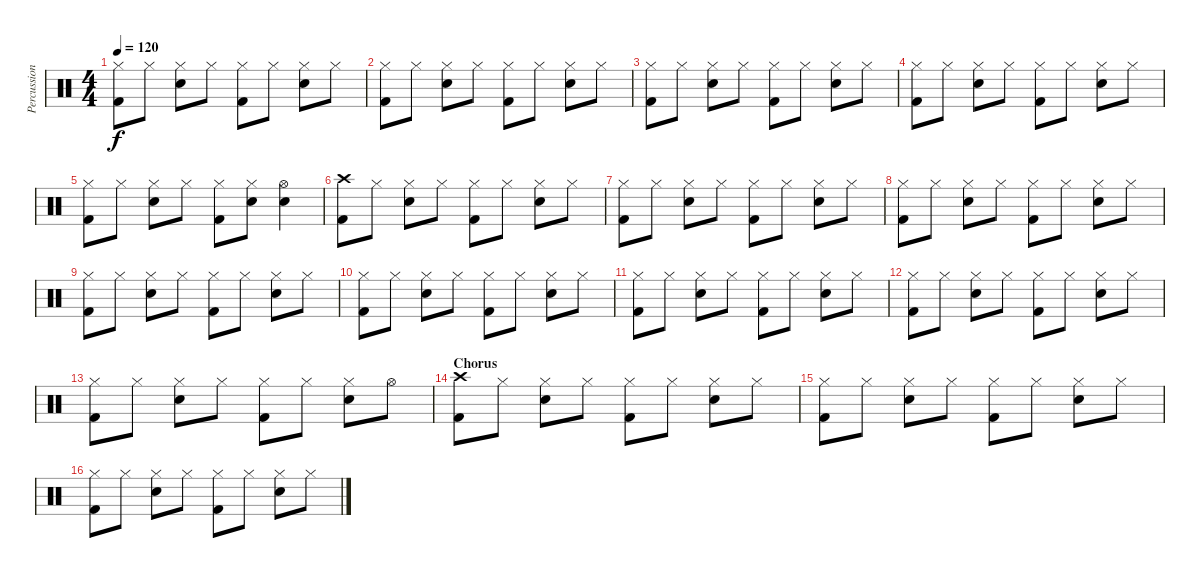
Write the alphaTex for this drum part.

\track ("Percussion" "Percussion") {instrument percussion}
\staff {score}
\articulation defaults
\ts (4 4)
\tempo 120
\clef neutral
\ks c
("Hi-Hat (closed)" "Kick (hit) 2").8{dy f} "Hi-Hat (closed)".8 ("Hi-Hat (closed)" "Electric Snare (hit)").8 "Hi-Hat (closed)".8 ("Hi-Hat (closed)" "Kick (hit) 2").8 "Hi-Hat (closed)".8 ("Hi-Hat (closed)" "Electric Snare (hit)").8 "Hi-Hat (closed)".8 |
("Hi-Hat (closed)" "Kick (hit) 2").8 "Hi-Hat (closed)".8 ("Hi-Hat (closed)" "Electric Snare (hit)").8 "Hi-Hat (closed)".8 ("Hi-Hat (closed)" "Kick (hit) 2").8 "Hi-Hat (closed)".8 ("Hi-Hat (closed)" "Electric Snare (hit)").8 "Hi-Hat (closed)".8 |
("Hi-Hat (closed)" "Kick (hit) 2").8 "Hi-Hat (closed)".8 ("Hi-Hat (closed)" "Electric Snare (hit)").8 "Hi-Hat (closed)".8 ("Hi-Hat (closed)" "Kick (hit) 2").8 "Hi-Hat (closed)".8 ("Hi-Hat (closed)" "Electric Snare (hit)").8 "Hi-Hat (closed)".8 |
("Hi-Hat (closed)" "Kick (hit) 2").8 "Hi-Hat (closed)".8 ("Hi-Hat (closed)" "Electric Snare (hit)").8 "Hi-Hat (closed)".8 ("Hi-Hat (closed)" "Kick (hit) 2").8 "Hi-Hat (closed)".8 ("Hi-Hat (closed)" "Electric Snare (hit)").8 "Hi-Hat (closed)".8 |
("Hi-Hat (closed)" "Kick (hit) 2").8 "Hi-Hat (closed)".8 ("Hi-Hat (closed)" "Electric Snare (hit)").8 "Hi-Hat (closed)".8 ("Hi-Hat (closed)" "Kick (hit) 2").8 ("Hi-Hat (closed)" "Electric Snare (hit)").8 ("Hi-Hat (open)" "Electric Snare (hit)").4 |
("Crash high (hit)" "Kick (hit) 2").8 "Hi-Hat (closed)".8 ("Hi-Hat (closed)" "Electric Snare (hit)").8 "Hi-Hat (closed)".8 ("Hi-Hat (closed)" "Kick (hit) 2").8 "Hi-Hat (closed)".8 ("Hi-Hat (closed)" "Electric Snare (hit)").8 "Hi-Hat (closed)".8 |
("Hi-Hat (closed)" "Kick (hit) 2").8 "Hi-Hat (closed)".8 ("Hi-Hat (closed)" "Electric Snare (hit)").8 "Hi-Hat (closed)".8 ("Hi-Hat (closed)" "Kick (hit) 2").8 "Hi-Hat (closed)".8 ("Hi-Hat (closed)" "Electric Snare (hit)").8 "Hi-Hat (closed)".8 |
("Hi-Hat (closed)" "Kick (hit) 2").8 "Hi-Hat (closed)".8 ("Hi-Hat (closed)" "Electric Snare (hit)").8 "Hi-Hat (closed)".8 ("Hi-Hat (closed)" "Kick (hit) 2").8 "Hi-Hat (closed)".8 ("Hi-Hat (closed)" "Electric Snare (hit)").8 "Hi-Hat (closed)".8 |
("Hi-Hat (closed)" "Kick (hit) 2").8 "Hi-Hat (closed)".8 ("Hi-Hat (closed)" "Electric Snare (hit)").8 "Hi-Hat (closed)".8 ("Hi-Hat (closed)" "Kick (hit) 2").8 "Hi-Hat (closed)".8 ("Hi-Hat (closed)" "Electric Snare (hit)").8 "Hi-Hat (closed)".8 |
("Hi-Hat (closed)" "Kick (hit) 2").8 "Hi-Hat (closed)".8 ("Hi-Hat (closed)" "Electric Snare (hit)").8 "Hi-Hat (closed)".8 ("Hi-Hat (closed)" "Kick (hit) 2").8 "Hi-Hat (closed)".8 ("Hi-Hat (closed)" "Electric Snare (hit)").8 "Hi-Hat (closed)".8 |
("Hi-Hat (closed)" "Kick (hit) 2").8 "Hi-Hat (closed)".8 ("Hi-Hat (closed)" "Electric Snare (hit)").8 "Hi-Hat (closed)".8 ("Hi-Hat (closed)" "Kick (hit) 2").8 "Hi-Hat (closed)".8 ("Hi-Hat (closed)" "Electric Snare (hit)").8 "Hi-Hat (closed)".8 |
("Hi-Hat (closed)" "Kick (hit) 2").8 "Hi-Hat (closed)".8 ("Hi-Hat (closed)" "Electric Snare (hit)").8 "Hi-Hat (closed)".8 ("Hi-Hat (closed)" "Kick (hit) 2").8 "Hi-Hat (closed)".8 ("Hi-Hat (closed)" "Electric Snare (hit)").8 "Hi-Hat (closed)".8 |
("Hi-Hat (closed)" "Kick (hit) 2").8 "Hi-Hat (closed)".8 ("Hi-Hat (closed)" "Electric Snare (hit)").8 "Hi-Hat (closed)".8 ("Hi-Hat (closed)" "Kick (hit) 2").8 "Hi-Hat (closed)".8 ("Hi-Hat (closed)" "Electric Snare (hit)").8 "Hi-Hat (open)".8 |
\section ("" "Chorus")
("Crash high (hit)" "Kick (hit) 2").8 "Hi-Hat (closed)".8 ("Hi-Hat (closed)" "Electric Snare (hit)").8 "Hi-Hat (closed)".8 ("Hi-Hat (closed)" "Kick (hit) 2").8 "Hi-Hat (closed)".8 ("Hi-Hat (closed)" "Electric Snare (hit)").8 "Hi-Hat (closed)".8 |
("Hi-Hat (closed)" "Kick (hit) 2").8 "Hi-Hat (closed)".8 ("Hi-Hat (closed)" "Electric Snare (hit)").8 "Hi-Hat (closed)".8 ("Hi-Hat (closed)" "Kick (hit) 2").8 "Hi-Hat (closed)".8 ("Hi-Hat (closed)" "Electric Snare (hit)").8 "Hi-Hat (closed)".8 |
("Hi-Hat (closed)" "Kick (hit) 2").8 "Hi-Hat (closed)".8 ("Hi-Hat (closed)" "Electric Snare (hit)").8 "Hi-Hat (closed)".8 ("Hi-Hat (closed)" "Kick (hit) 2").8 "Hi-Hat (closed)".8 ("Hi-Hat (closed)" "Electric Snare (hit)").8 "Hi-Hat (closed)".8
